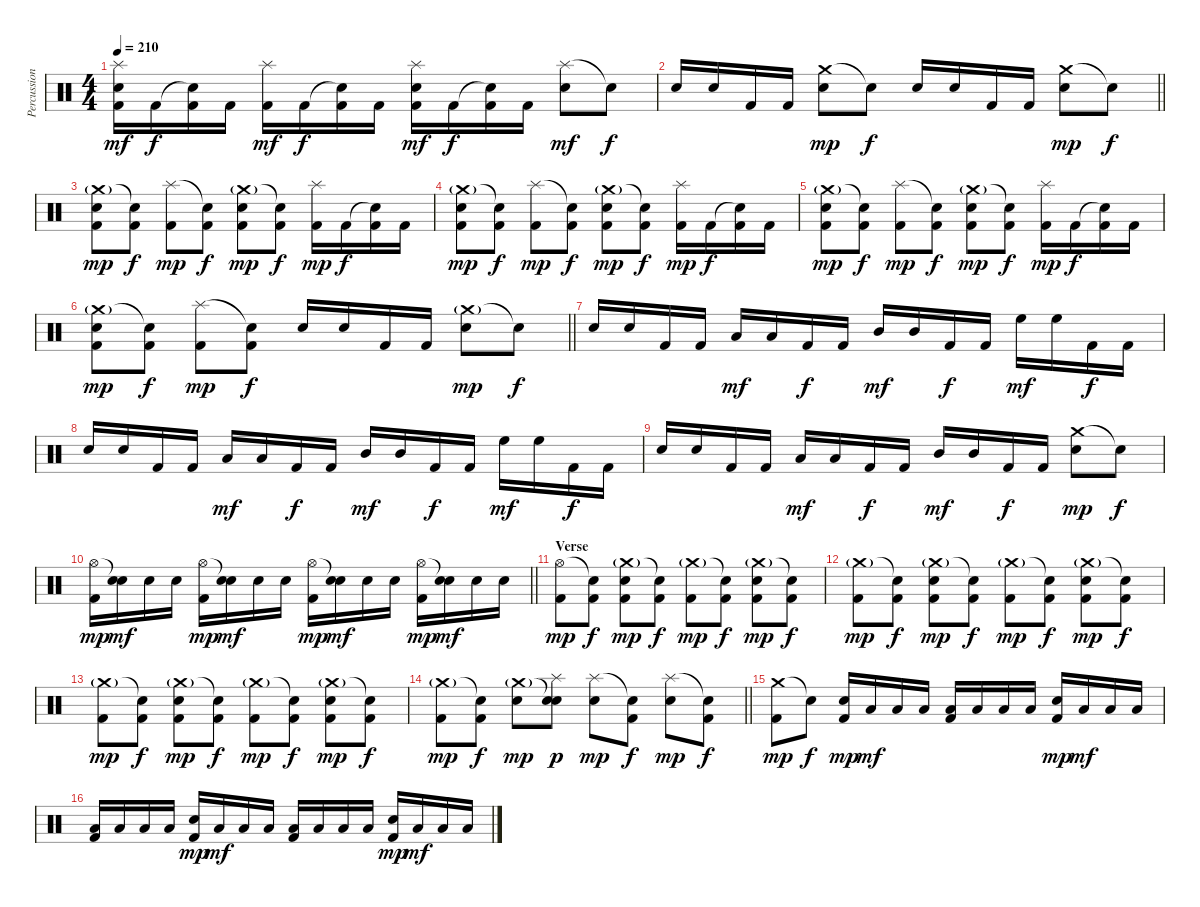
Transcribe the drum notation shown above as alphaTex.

\track ("Percussion" "Percussion") {instrument percussion}
\staff {score}
\articulation defaults
\ts (4 4)
\tempo 210
\clef neutral
\ks c
("Splash (hit)" "Electric Snare (hit)" "Kick (hit) 2").16{dy mf} "Kick (hit) 2".16{dy f} ("Snare (hit)"{t} "Kick (hit) 2").16 "Kick (hit) 2".16 ("Splash (hit)" "Kick (hit) 2").16{dy mf} "Kick (hit) 2".16{dy f} ("Snare (hit)"{t} "Kick (hit) 2").16 "Kick (hit) 2".16 ("Splash (hit)" "Electric Snare (hit)" "Kick (hit) 2").16{dy mf} "Kick (hit) 2".16{dy f} ("Snare (hit)"{t} "Kick (hit) 2").16 "Kick (hit) 2".16 ("Splash (hit)" "Electric Snare (hit)").8{dy mf} "Snare (hit)"{t}.8{dy f} |
\barLineRight lightlight "Electric Snare (hit)".16 "Electric Snare (hit)".16 "Kick (hit) 2".16 "Kick (hit) 2".16
("Crash medium (hit)" "Electric Snare (hit)").8{dy mp} "Snare (hit)"{t}.8{dy f} "Electric Snare (hit)".16 "Electric Snare (hit)".16 "Kick (hit) 2".16 "Kick (hit) 2".16 ("Crash medium (hit)" "Electric Snare (hit)").8{dy mp} "Snare (hit)"{t}.8{dy f} |
("Crash medium (hit)"{g} "Electric Snare (hit)" "Kick (hit) 2").8{dy mp} ("Snare (hit)"{t} "Kick (hit) 2").8{dy f} ("Splash (hit)" "Kick (hit) 2").8{dy mp} ("Snare (hit)"{t} "Kick (hit) 2").8{dy f} ("Crash medium (hit)"{g} "Electric Snare (hit)" "Kick (hit) 2").8{dy mp} ("Snare (hit)"{t} "Kick (hit) 2").8{dy f} ("Splash (hit)" "Kick (hit) 2").16{dy mp} "Kick (hit) 2".16{dy f} ("Snare (hit)"{t} "Kick (hit) 2").16 "Kick (hit) 2".16 |
("Crash medium (hit)"{g} "Electric Snare (hit)" "Kick (hit) 2").8{dy mp} ("Snare (hit)"{t} "Kick (hit) 2").8{dy f} ("Splash (hit)" "Kick (hit) 2").8{dy mp} ("Snare (hit)"{t} "Kick (hit) 2").8{dy f} ("Crash medium (hit)"{g} "Electric Snare (hit)" "Kick (hit) 2").8{dy mp} ("Snare (hit)"{t} "Kick (hit) 2").8{dy f} ("Splash (hit)" "Kick (hit) 2").16{dy mp} "Kick (hit) 2".16{dy f} ("Snare (hit)"{t} "Kick (hit) 2").16 "Kick (hit) 2".16 |
("Crash medium (hit)"{g} "Electric Snare (hit)" "Kick (hit) 2").8{dy mp} ("Snare (hit)"{t} "Kick (hit) 2").8{dy f} ("Splash (hit)" "Kick (hit) 2").8{dy mp} ("Snare (hit)"{t} "Kick (hit) 2").8{dy f} ("Crash medium (hit)"{g} "Electric Snare (hit)" "Kick (hit) 2").8{dy mp} ("Snare (hit)"{t} "Kick (hit) 2").8{dy f} ("Splash (hit)" "Kick (hit) 2").16{dy mp} "Kick (hit) 2".16{dy f} ("Snare (hit)"{t} "Kick (hit) 2").16 "Kick (hit) 2".16 |
\barLineRight lightlight
("Crash medium (hit)"{g} "Electric Snare (hit)" "Kick (hit) 2").8{dy mp} ("Snare (hit)"{t} "Kick (hit) 2").8{dy f} ("Splash (hit)" "Kick (hit) 2").8{dy mp} ("Snare (hit)"{t} "Kick (hit) 2").8{dy f} "Electric Snare (hit)".16 "Electric Snare (hit)".16 "Kick (hit) 2".16 "Kick (hit) 2".16 ("Crash medium (hit)"{g} "Electric Snare (hit)").8{dy mp} "Snare (hit)"{t}.8{dy f} |
"Electric Snare (hit)".16 "Electric Snare (hit)".16 "Kick (hit) 2".16 "Kick (hit) 2".16 "Low Tom (hit)".16{dy mf} "Low Tom (hit)".16 "Kick (hit) 2".16{dy f} "Kick (hit) 2".16 "Mid Tom (hit)".16{dy mf} "Mid Tom (hit)".16 "Kick (hit) 2".16{dy f} "Kick (hit) 2".16 "High Floor Tom (hit)".16{dy mf} "High Floor Tom (hit)".16 "Kick (hit) 2".16{dy f} "Kick (hit) 2".16 |
"Electric Snare (hit)".16 "Electric Snare (hit)".16 "Kick (hit) 2".16 "Kick (hit) 2".16 "Low Tom (hit)".16{dy mf} "Low Tom (hit)".16 "Kick (hit) 2".16{dy f} "Kick (hit) 2".16 "Mid Tom (hit)".16{dy mf} "Mid Tom (hit)".16 "Kick (hit) 2".16{dy f} "Kick (hit) 2".16 "High Floor Tom (hit)".16{dy mf} "High Floor Tom (hit)".16 "Kick (hit) 2".16{dy f} "Kick (hit) 2".16 |
"Electric Snare (hit)".16 "Electric Snare (hit)".16 "Kick (hit) 2".16 "Kick (hit) 2".16 "Low Tom (hit)".16{dy mf} "Low Tom (hit)".16 "Kick (hit) 2".16{dy f} "Kick (hit) 2".16 "Mid Tom (hit)".16{dy mf} "Mid Tom (hit)".16 "Kick (hit) 2".16{dy f} "Kick (hit) 2".16 ("Crash medium (hit)" "Electric Snare (hit)").8{dy mp} "Snare (hit)"{t}.8{dy f} |
\barLineRight lightlight
("Hi-Hat (open)" "Kick (hit) 2").16{dy mp} ("Snare (hit)"{t} "Electric Snare (hit)").16{dy mf} "Electric Snare (hit)".16 "Electric Snare (hit)".16 ("Hi-Hat (open)" "Kick (hit) 2").16{dy mp} ("Snare (hit)"{t} "Electric Snare (hit)").16{dy mf} "Electric Snare (hit)".16 "Electric Snare (hit)".16 ("Hi-Hat (open)" "Kick (hit) 2").16{dy mp} ("Snare (hit)"{t} "Electric Snare (hit)").16{dy mf} "Electric Snare (hit)".16 "Electric Snare (hit)".16 ("Hi-Hat (open)" "Kick (hit) 2").16{dy mp} ("Snare (hit)"{t} "Electric Snare (hit)").16{dy mf} "Electric Snare (hit)".16 "Electric Snare (hit)".16 |
\section ("" "Verse")
("Hi-Hat (open)" "Kick (hit) 2").8{dy mp} ("Snare (hit)"{t} "Kick (hit) 2").8{dy f} ("Crash medium (hit)"{g} "Electric Snare (hit)" "Kick (hit) 2").8{dy mp} ("Snare (hit)"{t} "Kick (hit) 2").8{dy f} ("Crash medium (hit)"{g} "Kick (hit) 2").8{dy mp} ("Snare (hit)"{t} "Kick (hit) 2").8{dy f} ("Crash medium (hit)"{g} "Electric Snare (hit)" "Kick (hit) 2").8{dy mp} ("Snare (hit)"{t} "Kick (hit) 2").8{dy f} |
("Crash medium (hit)"{g} "Kick (hit) 2").8{dy mp} ("Snare (hit)"{t} "Kick (hit) 2").8{dy f} ("Crash medium (hit)"{g} "Electric Snare (hit)" "Kick (hit) 2").8{dy mp} ("Snare (hit)"{t} "Kick (hit) 2").8{dy f} ("Crash medium (hit)"{g} "Kick (hit) 2").8{dy mp} ("Snare (hit)"{t} "Kick (hit) 2").8{dy f} ("Crash medium (hit)"{g} "Electric Snare (hit)" "Kick (hit) 2").8{dy mp} ("Snare (hit)"{t} "Kick (hit) 2").8{dy f} |
("Crash medium (hit)"{g} "Kick (hit) 2").8{dy mp} ("Snare (hit)"{t} "Kick (hit) 2").8{dy f} ("Crash medium (hit)"{g} "Electric Snare (hit)" "Kick (hit) 2").8{dy mp} ("Snare (hit)"{t} "Kick (hit) 2").8{dy f} ("Crash medium (hit)"{g} "Kick (hit) 2").8{dy mp} ("Snare (hit)"{t} "Kick (hit) 2").8{dy f} ("Crash medium (hit)"{g} "Electric Snare (hit)" "Kick (hit) 2").8{dy mp} ("Snare (hit)"{t} "Kick (hit) 2").8{dy f} |
\barLineRight lightlight
("Crash medium (hit)"{g} "Kick (hit) 2").8{dy mp} ("Snare (hit)"{t} "Kick (hit) 2").8{dy f} ("Crash medium (hit)"{g} "Electric Snare (hit)").8{dy mp} ("Snare (hit)"{t} "Splash (hit)" "Electric Snare (hit)").8{dy p} ("Splash (hit)" "Electric Snare (hit)").8{dy mp} ("Snare (hit)"{t} "Kick (hit) 2").8{dy f} ("Splash (hit)" "Electric Snare (hit)").8{dy mp} ("Snare (hit)"{t} "Kick (hit) 2").8{dy f} |
("Crash medium (hit)" "Kick (hit) 2").8{dy mp} "Snare (hit)"{t}.8{dy f} ("Electric Snare (hit)" "Kick (hit) 2").16{dy mp} "Low Tom (hit)".16{dy mf} "Low Tom (hit)".16 "Low Tom (hit)".16 ("Low Tom (hit)" "Kick (hit) 2").16 "Low Tom (hit)".16 "Low Tom (hit)".16 "Low Tom (hit)".16 ("Electric Snare (hit)" "Kick (hit) 2").16{dy mp} "Low Tom (hit)".16{dy mf} "Low Tom (hit)".16 "Low Tom (hit)".16 |
("Low Tom (hit)" "Kick (hit) 2").16 "Low Tom (hit)".16 "Low Tom (hit)".16 "Low Tom (hit)".16 ("Electric Snare (hit)" "Kick (hit) 2").16{dy mp} "Low Tom (hit)".16{dy mf} "Low Tom (hit)".16 "Low Tom (hit)".16 ("Low Tom (hit)" "Kick (hit) 2").16 "Low Tom (hit)".16 "Low Tom (hit)".16 "Low Tom (hit)".16 ("Electric Snare (hit)" "Kick (hit) 2").16{dy mp} "Low Tom (hit)".16{dy mf} "Low Tom (hit)".16 "Low Tom (hit)".16
